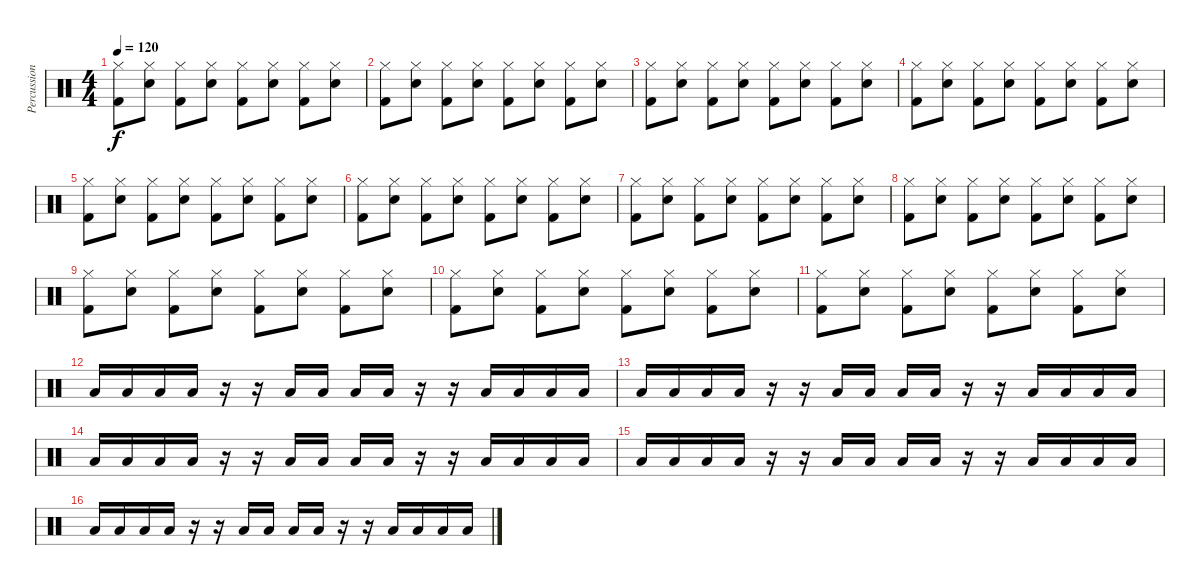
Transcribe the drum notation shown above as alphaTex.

\track ("Percussions" "Percussion") {instrument percussion}
\staff {score}
\articulation defaults
\ts (4 4)
\tempo 120
\clef neutral
\ks c
("Hi-Hat (closed)" "Kick (hit) 2").8{dy f} ("Hi-Hat (closed)" "Snare (hit) 2").8 ("Hi-Hat (closed)" "Kick (hit) 2").8 ("Hi-Hat (closed)" "Snare (hit) 2").8 ("Hi-Hat (closed)" "Kick (hit) 2").8 ("Hi-Hat (closed)" "Snare (hit) 2").8 ("Hi-Hat (closed)" "Kick (hit) 2").8 ("Hi-Hat (closed)" "Snare (hit) 2").8 |
("Hi-Hat (closed)" "Kick (hit) 2").8 ("Hi-Hat (closed)" "Snare (hit) 2").8 ("Hi-Hat (closed)" "Kick (hit) 2").8 ("Hi-Hat (closed)" "Snare (hit) 2").8 ("Hi-Hat (closed)" "Kick (hit) 2").8 ("Hi-Hat (closed)" "Snare (hit) 2").8 ("Hi-Hat (closed)" "Kick (hit) 2").8 ("Hi-Hat (closed)" "Snare (hit) 2").8 |
("Hi-Hat (closed)" "Kick (hit) 2").8 ("Hi-Hat (closed)" "Snare (hit) 2").8 ("Hi-Hat (closed)" "Kick (hit) 2").8 ("Hi-Hat (closed)" "Snare (hit) 2").8 ("Hi-Hat (closed)" "Kick (hit) 2").8 ("Hi-Hat (closed)" "Snare (hit) 2").8 ("Hi-Hat (closed)" "Kick (hit) 2").8 ("Hi-Hat (closed)" "Snare (hit) 2").8 |
("Hi-Hat (closed)" "Kick (hit) 2").8 ("Hi-Hat (closed)" "Snare (hit) 2").8 ("Hi-Hat (closed)" "Kick (hit) 2").8 ("Hi-Hat (closed)" "Snare (hit) 2").8 ("Hi-Hat (closed)" "Kick (hit) 2").8 ("Hi-Hat (closed)" "Snare (hit) 2").8 ("Hi-Hat (closed)" "Kick (hit) 2").8 ("Hi-Hat (closed)" "Snare (hit) 2").8 |
("Hi-Hat (closed)" "Kick (hit) 2").8 ("Hi-Hat (closed)" "Snare (hit) 2").8 ("Hi-Hat (closed)" "Kick (hit) 2").8 ("Hi-Hat (closed)" "Snare (hit) 2").8 ("Hi-Hat (closed)" "Kick (hit) 2").8 ("Hi-Hat (closed)" "Snare (hit) 2").8 ("Hi-Hat (closed)" "Kick (hit) 2").8 ("Hi-Hat (closed)" "Snare (hit) 2").8 |
("Hi-Hat (closed)" "Kick (hit) 2").8 ("Hi-Hat (closed)" "Snare (hit) 2").8 ("Hi-Hat (closed)" "Kick (hit) 2").8 ("Hi-Hat (closed)" "Snare (hit) 2").8 ("Hi-Hat (closed)" "Kick (hit) 2").8 ("Hi-Hat (closed)" "Snare (hit) 2").8 ("Hi-Hat (closed)" "Kick (hit) 2").8 ("Hi-Hat (closed)" "Snare (hit) 2").8 |
("Hi-Hat (closed)" "Kick (hit) 2").8 ("Hi-Hat (closed)" "Snare (hit) 2").8 ("Hi-Hat (closed)" "Kick (hit) 2").8 ("Hi-Hat (closed)" "Snare (hit) 2").8 ("Hi-Hat (closed)" "Kick (hit) 2").8 ("Hi-Hat (closed)" "Snare (hit) 2").8 ("Hi-Hat (closed)" "Kick (hit) 2").8 ("Hi-Hat (closed)" "Snare (hit) 2").8 |
("Hi-Hat (closed)" "Kick (hit) 2").8 ("Hi-Hat (closed)" "Snare (hit) 2").8 ("Hi-Hat (closed)" "Kick (hit) 2").8 ("Hi-Hat (closed)" "Snare (hit) 2").8 ("Hi-Hat (closed)" "Kick (hit) 2").8 ("Hi-Hat (closed)" "Snare (hit) 2").8 ("Hi-Hat (closed)" "Kick (hit) 2").8 ("Hi-Hat (closed)" "Snare (hit) 2").8 |
("Hi-Hat (closed)" "Kick (hit) 2").8 ("Hi-Hat (closed)" "Snare (hit) 2").8 ("Hi-Hat (closed)" "Kick (hit) 2").8 ("Hi-Hat (closed)" "Snare (hit) 2").8 ("Hi-Hat (closed)" "Kick (hit) 2").8 ("Hi-Hat (closed)" "Snare (hit) 2").8 ("Hi-Hat (closed)" "Kick (hit) 2").8 ("Hi-Hat (closed)" "Snare (hit) 2").8 |
("Hi-Hat (closed)" "Kick (hit) 2").8 ("Hi-Hat (closed)" "Snare (hit) 2").8 ("Hi-Hat (closed)" "Kick (hit) 2").8 ("Hi-Hat (closed)" "Snare (hit) 2").8 ("Hi-Hat (closed)" "Kick (hit) 2").8 ("Hi-Hat (closed)" "Snare (hit) 2").8 ("Hi-Hat (closed)" "Kick (hit) 2").8 ("Hi-Hat (closed)" "Snare (hit) 2").8 |
("Hi-Hat (closed)" "Kick (hit) 2").8 ("Hi-Hat (closed)" "Snare (hit) 2").8 ("Hi-Hat (closed)" "Kick (hit) 2").8 ("Hi-Hat (closed)" "Snare (hit) 2").8 ("Hi-Hat (closed)" "Kick (hit) 2").8 ("Hi-Hat (closed)" "Snare (hit) 2").8 ("Hi-Hat (closed)" "Kick (hit) 2").8 ("Hi-Hat (closed)" "Snare (hit) 2").8 |
"Low Floor Tom (hit)".16 "Low Floor Tom (hit)".16 "Low Floor Tom (hit)".16 "Low Floor Tom (hit)".16 r.16 r.16 "Low Floor Tom (hit)".16 "Low Floor Tom (hit)".16 "Low Floor Tom (hit)".16 "Low Floor Tom (hit)".16 r.16 r.16 "Low Floor Tom (hit)".16 "Low Floor Tom (hit)".16 "Low Floor Tom (hit)".16 "Low Floor Tom (hit)".16 |
"Low Floor Tom (hit)".16 "Low Floor Tom (hit)".16 "Low Floor Tom (hit)".16 "Low Floor Tom (hit)".16 r.16 r.16 "Low Floor Tom (hit)".16 "Low Floor Tom (hit)".16 "Low Floor Tom (hit)".16 "Low Floor Tom (hit)".16 r.16 r.16 "Low Floor Tom (hit)".16 "Low Floor Tom (hit)".16 "Low Floor Tom (hit)".16 "Low Floor Tom (hit)".16 |
"Low Floor Tom (hit)".16 "Low Floor Tom (hit)".16 "Low Floor Tom (hit)".16 "Low Floor Tom (hit)".16 r.16 r.16 "Low Floor Tom (hit)".16 "Low Floor Tom (hit)".16 "Low Floor Tom (hit)".16 "Low Floor Tom (hit)".16 r.16 r.16 "Low Floor Tom (hit)".16 "Low Floor Tom (hit)".16 "Low Floor Tom (hit)".16 "Low Floor Tom (hit)".16 |
"Low Floor Tom (hit)".16 "Low Floor Tom (hit)".16 "Low Floor Tom (hit)".16 "Low Floor Tom (hit)".16 r.16 r.16 "Low Floor Tom (hit)".16 "Low Floor Tom (hit)".16 "Low Floor Tom (hit)".16 "Low Floor Tom (hit)".16 r.16 r.16 "Low Floor Tom (hit)".16 "Low Floor Tom (hit)".16 "Low Floor Tom (hit)".16 "Low Floor Tom (hit)".16 |
"Low Floor Tom (hit)".16 "Low Floor Tom (hit)".16 "Low Floor Tom (hit)".16 "Low Floor Tom (hit)".16 r.16 r.16 "Low Floor Tom (hit)".16 "Low Floor Tom (hit)".16 "Low Floor Tom (hit)".16 "Low Floor Tom (hit)".16 r.16 r.16 "Low Floor Tom (hit)".16 "Low Floor Tom (hit)".16 "Low Floor Tom (hit)".16 "Low Floor Tom (hit)".16
